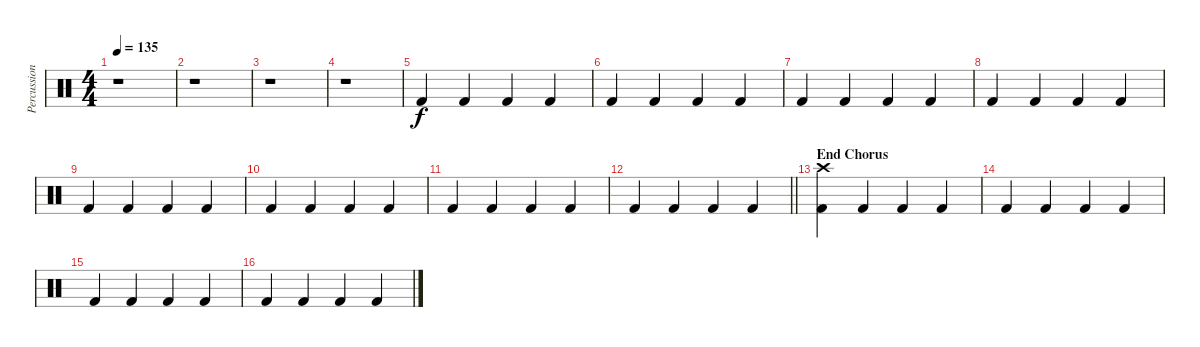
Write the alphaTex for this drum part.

\track ("Percussion" "Percussion") {instrument percussion}
\staff {score}
\articulation defaults
\ts (4 4)
\tempo 135
\clef neutral
\ks c
r.1{dy f} |
r.1 |
r.1 |
r.1 |
"Kick (hit) 2".4 "Kick (hit) 2".4 "Kick (hit) 2".4 "Kick (hit) 2".4 |
"Kick (hit) 2".4 "Kick (hit) 2".4 "Kick (hit) 2".4 "Kick (hit) 2".4 |
"Kick (hit) 2".4 "Kick (hit) 2".4 "Kick (hit) 2".4 "Kick (hit) 2".4 |
"Kick (hit) 2".4 "Kick (hit) 2".4 "Kick (hit) 2".4 "Kick (hit) 2".4 |
"Kick (hit) 2".4 "Kick (hit) 2".4 "Kick (hit) 2".4 "Kick (hit) 2".4 |
"Kick (hit) 2".4 "Kick (hit) 2".4 "Kick (hit) 2".4 "Kick (hit) 2".4 |
"Kick (hit) 2".4 "Kick (hit) 2".4 "Kick (hit) 2".4 "Kick (hit) 2".4 |
\barLineRight lightlight "Kick (hit) 2".4 "Kick (hit) 2".4 "Kick (hit) 2".4 "Kick (hit) 2".4
|
\section ("" "End Chorus")
("Kick (hit) 2" "Crash high (hit)").4 "Kick (hit) 2".4 "Kick (hit) 2".4 "Kick (hit) 2".4 |
"Kick (hit) 2".4 "Kick (hit) 2".4 "Kick (hit) 2".4 "Kick (hit) 2".4 |
"Kick (hit) 2".4 "Kick (hit) 2".4 "Kick (hit) 2".4 "Kick (hit) 2".4 |
"Kick (hit) 2".4 "Kick (hit) 2".4 "Kick (hit) 2".4 "Kick (hit) 2".4
